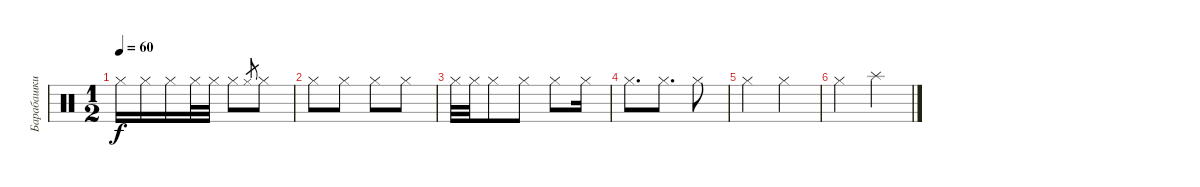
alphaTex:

\track ("Барабашки High" "Барабашки ") {instrument percussion}
\staff {score}
\articulation defaults
\ts (1 2)
\tempo 60
\clef neutral
\ks c "Hi-Hat (closed)".16{dy f} "Hi-Hat (closed)".16 "Hi-Hat (closed)".16 "Hi-Hat (closed)".32 "Hi-Hat (closed)".32 "Hi-Hat (closed)".8 "Hi-Hat (closed)".8{gr} "Hi-Hat (closed)".8
|
"Hi-Hat (closed)".8 "Hi-Hat (closed)".8 "Hi-Hat (closed)".8 "Hi-Hat (closed)".8 |
"Hi-Hat (closed)".32 "Hi-Hat (closed)".32 "Hi-Hat (closed)".8 "Hi-Hat (closed)".8 "Hi-Hat (closed)".8 "Hi-Hat (closed)".16 |
"Hi-Hat (closed)".8{d} "Hi-Hat (closed)".8{d} "Hi-Hat (closed)".8 |
"Hi-Hat (closed)".4 "Hi-Hat (closed)".4 |
"Hi-Hat (closed)".4 "Splash (hit)".4
